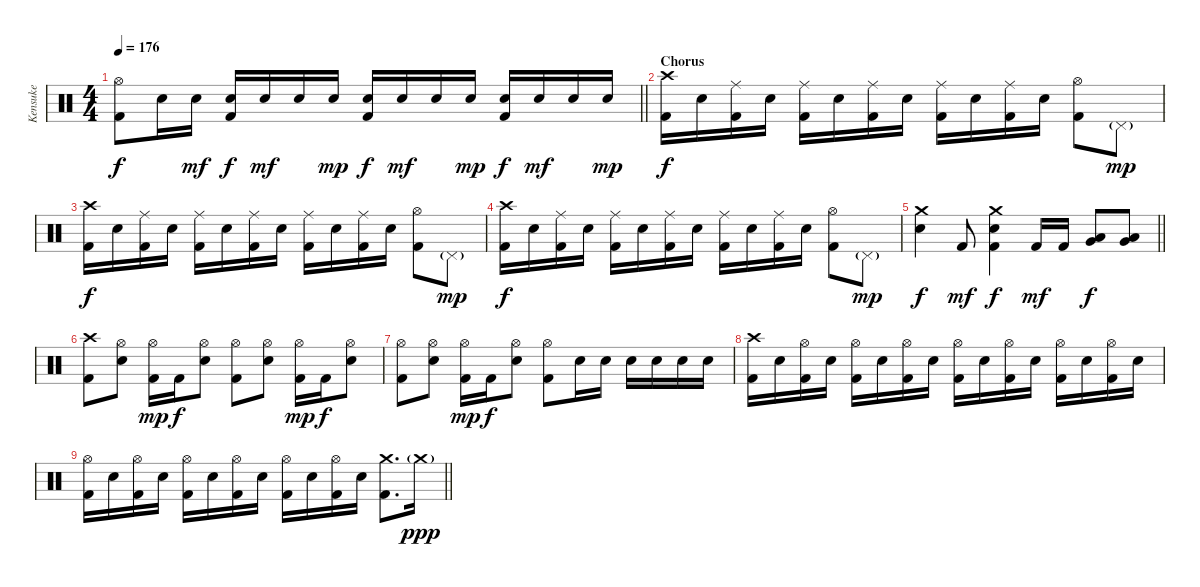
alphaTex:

\track ("Kensuke" "Kensuke") {instrument percussion}
\staff {score}
\articulation defaults
\ts (4 4)
\tempo 176
\clef neutral
\barLineRight lightlight
\ks c
("Hi-Hat (open)" "Kick (hit) 2").8{dy f} "Electric Snare (hit)".16 "Electric Snare (hit)".16{dy mf} ("Electric Snare (hit)" "Kick (hit) 2").16{dy f} "Electric Snare (hit)".16{dy mf} "Electric Snare (hit)".16 "Electric Snare (hit)".16{dy mp} ("Electric Snare (hit)" "Kick (hit) 2").16{dy f} "Electric Snare (hit)".16{dy mf} "Electric Snare (hit)".16 "Electric Snare (hit)".16{dy mp} ("Electric Snare (hit)" "Kick (hit) 2").16{dy f} "Electric Snare (hit)".16{dy mf} "Electric Snare (hit)".16 "Electric Snare (hit)".16{dy mp} |
\section ("" "Chorus")
("Crash high (hit)" "Kick (hit) 2").16{dy f} "Electric Snare (hit)".16 ("Ride (middle)" "Kick (hit) 2").16 "Electric Snare (hit)".16 ("Ride (middle)" "Kick (hit) 2").16 "Electric Snare (hit)".16 ("Ride (middle)" "Kick (hit) 2").16 "Electric Snare (hit)".16 ("Ride (middle)" "Kick (hit) 2").16 "Electric Snare (hit)".16 ("Ride (middle)" "Kick (hit) 2").16 "Electric Snare (hit)".16 ("Hi-Hat (open)" "Kick (hit) 2").8 "Pedal Hi-Hat (hit)"{g}.8{dy mp} |
("Crash high (hit)" "Kick (hit) 2").16{dy f} "Electric Snare (hit)".16 ("Ride (middle)" "Kick (hit) 2").16 "Electric Snare (hit)".16 ("Ride (middle)" "Kick (hit) 2").16 "Electric Snare (hit)".16 ("Ride (middle)" "Kick (hit) 2").16 "Electric Snare (hit)".16 ("Ride (middle)" "Kick (hit) 2").16 "Electric Snare (hit)".16 ("Ride (middle)" "Kick (hit) 2").16 "Electric Snare (hit)".16 ("Hi-Hat (open)" "Kick (hit) 2").8 "Pedal Hi-Hat (hit)"{g}.8{dy mp} |
("Crash high (hit)" "Kick (hit) 2").16{dy f} "Electric Snare (hit)".16 ("Ride (middle)" "Kick (hit) 2").16 "Electric Snare (hit)".16 ("Ride (middle)" "Kick (hit) 2").16 "Electric Snare (hit)".16 ("Ride (middle)" "Kick (hit) 2").16 "Electric Snare (hit)".16 ("Ride (middle)" "Kick (hit) 2").16 "Electric Snare (hit)".16 ("Ride (middle)" "Kick (hit) 2").16 "Electric Snare (hit)".16 ("Hi-Hat (open)" "Kick (hit) 2").8 "Pedal Hi-Hat (hit)"{g}.8{dy mp} |
\barLineRight lightlight
("Crash medium (hit)" "Electric Snare (hit)").4{dy f} "Kick (hit) 2".8{dy mf} ("Crash medium (hit)" "Electric Snare (hit)" "Kick (hit) 2").4{dy f} "Kick (hit) 2".16{dy mf} "Kick (hit) 2".16 ("Very Low Tom (hit)" "Low Floor Tom (hit)").8{dy f} ("Very Low Tom (hit)" "Low Floor Tom (hit)").8 |
\section ("" "")
("Crash high (hit)" "Kick (hit) 2").8 ("Hi-Hat (open)" "Electric Snare (hit)").8 ("Hi-Hat (open)" "Kick (hit) 2").16{dy mp} "Kick (hit) 2".16{dy f} ("Hi-Hat (open)" "Electric Snare (hit)").8 ("Hi-Hat (open)" "Kick (hit) 2").8 ("Hi-Hat (open)" "Electric Snare (hit)").8 ("Hi-Hat (open)" "Kick (hit) 2").16{dy mp} "Kick (hit) 2".16{dy f} ("Hi-Hat (open)" "Electric Snare (hit)").8 |
("Hi-Hat (open)" "Kick (hit) 2").8 ("Hi-Hat (open)" "Electric Snare (hit)").8 ("Hi-Hat (open)" "Kick (hit) 2").16{dy mp} "Kick (hit) 2".16{dy f} ("Hi-Hat (open)" "Electric Snare (hit)").8 ("Hi-Hat (open)" "Kick (hit) 2").8 "Electric Snare (hit)".16 "Electric Snare (hit)".16 "Electric Snare (hit)".16 "Electric Snare (hit)".16 "Electric Snare (hit)".16 "Electric Snare (hit)".16 |
("Crash high (hit)" "Kick (hit) 2").16 "Electric Snare (hit)".16 ("Hi-Hat (open)" "Kick (hit) 2").16 "Electric Snare (hit)".16 ("Hi-Hat (open)" "Kick (hit) 2").16 "Electric Snare (hit)".16 ("Hi-Hat (open)" "Kick (hit) 2").16 "Electric Snare (hit)".16 ("Hi-Hat (open)" "Kick (hit) 2").16 "Electric Snare (hit)".16 ("Hi-Hat (open)" "Kick (hit) 2").16 "Electric Snare (hit)".16 ("Hi-Hat (open)" "Kick (hit) 2").16 "Electric Snare (hit)".16 ("Hi-Hat (open)" "Kick (hit) 2").16 "Electric Snare (hit)".16 |
\barLineRight lightlight
("Hi-Hat (open)" "Kick (hit) 2").16 "Electric Snare (hit)".16 ("Hi-Hat (open)" "Kick (hit) 2").16 "Electric Snare (hit)".16 ("Hi-Hat (open)" "Kick (hit) 2").16 "Electric Snare (hit)".16 ("Hi-Hat (open)" "Kick (hit) 2").16 "Electric Snare (hit)".16 ("Hi-Hat (open)" "Kick (hit) 2").16 "Electric Snare (hit)".16 ("Hi-Hat (open)" "Kick (hit) 2").16 "Electric Snare (hit)".16 ("Crash medium (hit)" "Kick (hit) 2").8{d} "Crash medium (hit)"{g}.16{dy ppp}
